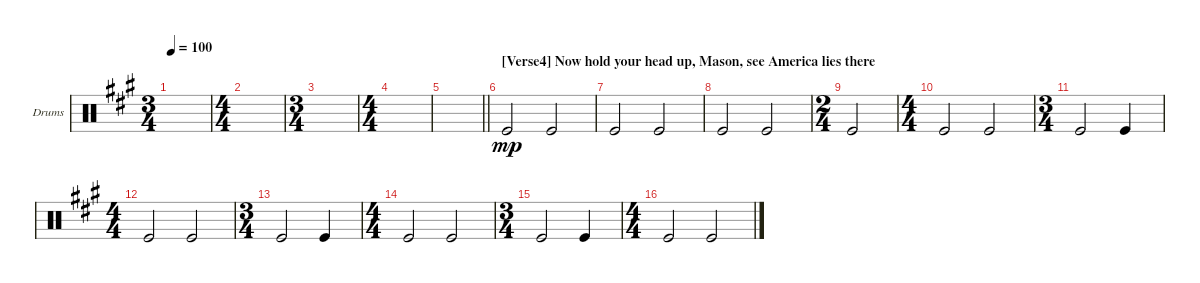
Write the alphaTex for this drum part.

\bracketExtendMode groupsimilarinstruments
\firstSystemTrackNameOrientation horizontal
\otherSystemsTrackNameOrientation horizontal
\track ("Drumkit" "Drums") {instrument percussion}
\staff {score}
\articulation defaults
\ts (3 4)
\tempo 100
\clef neutral
\scale
0.333333
\ks f#minor
|
\ts (4 4)
\scale
0.333333 |
\ts (3 4)
\scale
0.404682 |
\ts (4 4)
\scale
0.404682 |
\scale
0.190635
\barLineRight lightlight
|
\section ("" "[Verse4] Now hold your head up, Mason, see America lies there")
\scale
0.333333 "Kick (hit)".2{dy mp} "Kick (hit)".2 |
\scale
0.333333 "Kick (hit)".2 "Kick (hit)".2 |
\scale
0.333333 "Kick (hit)".2 "Kick (hit)".2 |
\ts (2 4)
\scale
0.333333 "Kick (hit)".2 |
\ts (4 4)
\scale
0.333333 "Kick (hit)".2 "Kick (hit)".2 |
\ts (3 4)
\scale
0.333333 "Kick (hit)".2 "Kick (hit)".4 |
\ts (4 4)
\scale
0.333333 "Kick (hit)".2 "Kick (hit)".2 |
\ts (3 4)
\scale
0.333333 "Kick (hit)".2 "Kick (hit)".4 |
\ts (4 4)
\scale
0.333333 "Kick (hit)".2 "Kick (hit)".2 |
\ts (3 4)
\scale
0.333333 "Kick (hit)".2 "Kick (hit)".4 |
\ts (4 4)
\scale
0.333333 "Kick (hit)".2 "Kick (hit)".2
